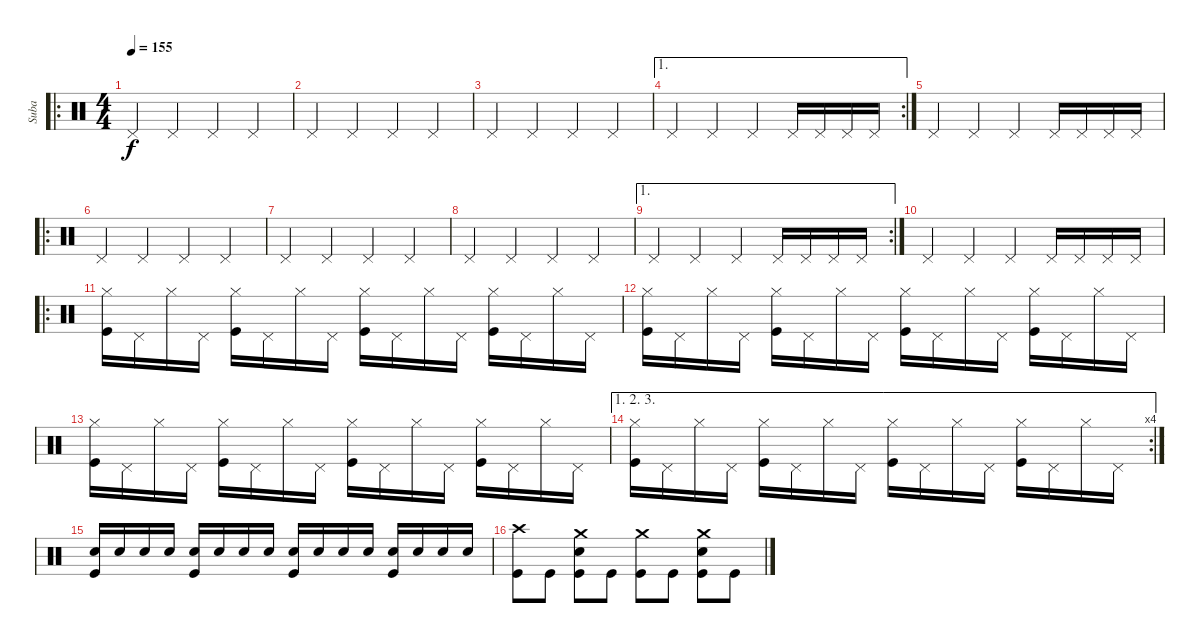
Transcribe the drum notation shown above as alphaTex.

\track ("Suba" "Suba") {instrument percussion}
\staff {score}
\articulation defaults
\ro
\ts (4 4)
\tempo 155
\clef neutral
\ks c "Pedal Hi-Hat (hit)".4{dy f} "Pedal Hi-Hat (hit)".4 "Pedal Hi-Hat (hit)".4 "Pedal Hi-Hat (hit)".4
|
"Pedal Hi-Hat (hit)".4 "Pedal Hi-Hat (hit)".4 "Pedal Hi-Hat (hit)".4 "Pedal Hi-Hat (hit)".4 |
"Pedal Hi-Hat (hit)".4 "Pedal Hi-Hat (hit)".4 "Pedal Hi-Hat (hit)".4 "Pedal Hi-Hat (hit)".4 |
\ae 1
\rc 2 "Pedal Hi-Hat (hit)".4 "Pedal Hi-Hat (hit)".4 "Pedal Hi-Hat (hit)".4 "Pedal Hi-Hat (hit)".16 "Pedal Hi-Hat (hit)".16 "Pedal Hi-Hat (hit)".16 "Pedal Hi-Hat (hit)".16
|
"Pedal Hi-Hat (hit)".4 "Pedal Hi-Hat (hit)".4 "Pedal Hi-Hat (hit)".4 "Pedal Hi-Hat (hit)".16 "Pedal Hi-Hat (hit)".16 "Pedal Hi-Hat (hit)".16 "Pedal Hi-Hat (hit)".16 |
\ro "Pedal Hi-Hat (hit)".4 "Pedal Hi-Hat (hit)".4 "Pedal Hi-Hat (hit)".4 "Pedal Hi-Hat (hit)".4
|
"Pedal Hi-Hat (hit)".4 "Pedal Hi-Hat (hit)".4 "Pedal Hi-Hat (hit)".4 "Pedal Hi-Hat (hit)".4 |
"Pedal Hi-Hat (hit)".4 "Pedal Hi-Hat (hit)".4 "Pedal Hi-Hat (hit)".4 "Pedal Hi-Hat (hit)".4 |
\ae 1
\rc 2 "Pedal Hi-Hat (hit)".4 "Pedal Hi-Hat (hit)".4 "Pedal Hi-Hat (hit)".4 "Pedal Hi-Hat (hit)".16 "Pedal Hi-Hat (hit)".16 "Pedal Hi-Hat (hit)".16 "Pedal Hi-Hat (hit)".16
|
"Pedal Hi-Hat (hit)".4 "Pedal Hi-Hat (hit)".4 "Pedal Hi-Hat (hit)".4 "Pedal Hi-Hat (hit)".16 "Pedal Hi-Hat (hit)".16 "Pedal Hi-Hat (hit)".16 "Pedal Hi-Hat (hit)".16 |
\ro
("Hi-Hat (closed)" "Kick (hit)").16 "Pedal Hi-Hat (hit)".16 "Hi-Hat (closed)".16 "Pedal Hi-Hat (hit)".16 ("Hi-Hat (closed)" "Kick (hit)").16 "Pedal Hi-Hat (hit)".16 "Hi-Hat (closed)".16 "Pedal Hi-Hat (hit)".16 ("Hi-Hat (closed)" "Kick (hit)").16 "Pedal Hi-Hat (hit)".16 "Hi-Hat (closed)".16 "Pedal Hi-Hat (hit)".16 ("Hi-Hat (closed)" "Kick (hit)").16 "Pedal Hi-Hat (hit)".16 "Hi-Hat (closed)".16 "Pedal Hi-Hat (hit)".16 |
("Hi-Hat (closed)" "Kick (hit)").16 "Pedal Hi-Hat (hit)".16 "Hi-Hat (closed)".16 "Pedal Hi-Hat (hit)".16 ("Hi-Hat (closed)" "Kick (hit)").16 "Pedal Hi-Hat (hit)".16 "Hi-Hat (closed)".16 "Pedal Hi-Hat (hit)".16 ("Hi-Hat (closed)" "Kick (hit)").16 "Pedal Hi-Hat (hit)".16 "Hi-Hat (closed)".16 "Pedal Hi-Hat (hit)".16 ("Hi-Hat (closed)" "Kick (hit)").16 "Pedal Hi-Hat (hit)".16 "Hi-Hat (closed)".16 "Pedal Hi-Hat (hit)".16 |
("Hi-Hat (closed)" "Kick (hit)").16 "Pedal Hi-Hat (hit)".16 "Hi-Hat (closed)".16 "Pedal Hi-Hat (hit)".16 ("Hi-Hat (closed)" "Kick (hit)").16 "Pedal Hi-Hat (hit)".16 "Hi-Hat (closed)".16 "Pedal Hi-Hat (hit)".16 ("Hi-Hat (closed)" "Kick (hit)").16 "Pedal Hi-Hat (hit)".16 "Hi-Hat (closed)".16 "Pedal Hi-Hat (hit)".16 ("Hi-Hat (closed)" "Kick (hit)").16 "Pedal Hi-Hat (hit)".16 "Hi-Hat (closed)".16 "Pedal Hi-Hat (hit)".16 |
\ae (1 2 3)
\rc 4
("Hi-Hat (closed)" "Kick (hit)").16 "Pedal Hi-Hat (hit)".16 "Hi-Hat (closed)".16 "Pedal Hi-Hat (hit)".16 ("Hi-Hat (closed)" "Kick (hit)").16 "Pedal Hi-Hat (hit)".16 "Hi-Hat (closed)".16 "Pedal Hi-Hat (hit)".16 ("Hi-Hat (closed)" "Kick (hit)").16 "Pedal Hi-Hat (hit)".16 "Hi-Hat (closed)".16 "Pedal Hi-Hat (hit)".16 ("Hi-Hat (closed)" "Kick (hit)").16 "Pedal Hi-Hat (hit)".16 "Hi-Hat (closed)".16 "Pedal Hi-Hat (hit)".16 |
("Electric Snare (hit)" "Kick (hit)").16 "Electric Snare (hit)".16 "Electric Snare (hit)".16 "Electric Snare (hit)".16 ("Electric Snare (hit)" "Kick (hit)").16 "Electric Snare (hit)".16 "Electric Snare (hit)".16 "Electric Snare (hit)".16 ("Electric Snare (hit)" "Kick (hit)").16 "Electric Snare (hit)".16 "Electric Snare (hit)".16 "Electric Snare (hit)".16 ("Electric Snare (hit)" "Kick (hit)").16 "Electric Snare (hit)".16 "Electric Snare (hit)".16 "Electric Snare (hit)".16 |
("Crash high (hit)" "Kick (hit)").8 "Kick (hit)".8 ("Crash medium (hit)" "Electric Snare (hit)" "Kick (hit)").8 "Kick (hit)".8 ("Crash medium (hit)" "Kick (hit)").8 "Kick (hit)".8 ("Crash medium (hit)" "Electric Snare (hit)" "Kick (hit)").8 "Kick (hit)".8
